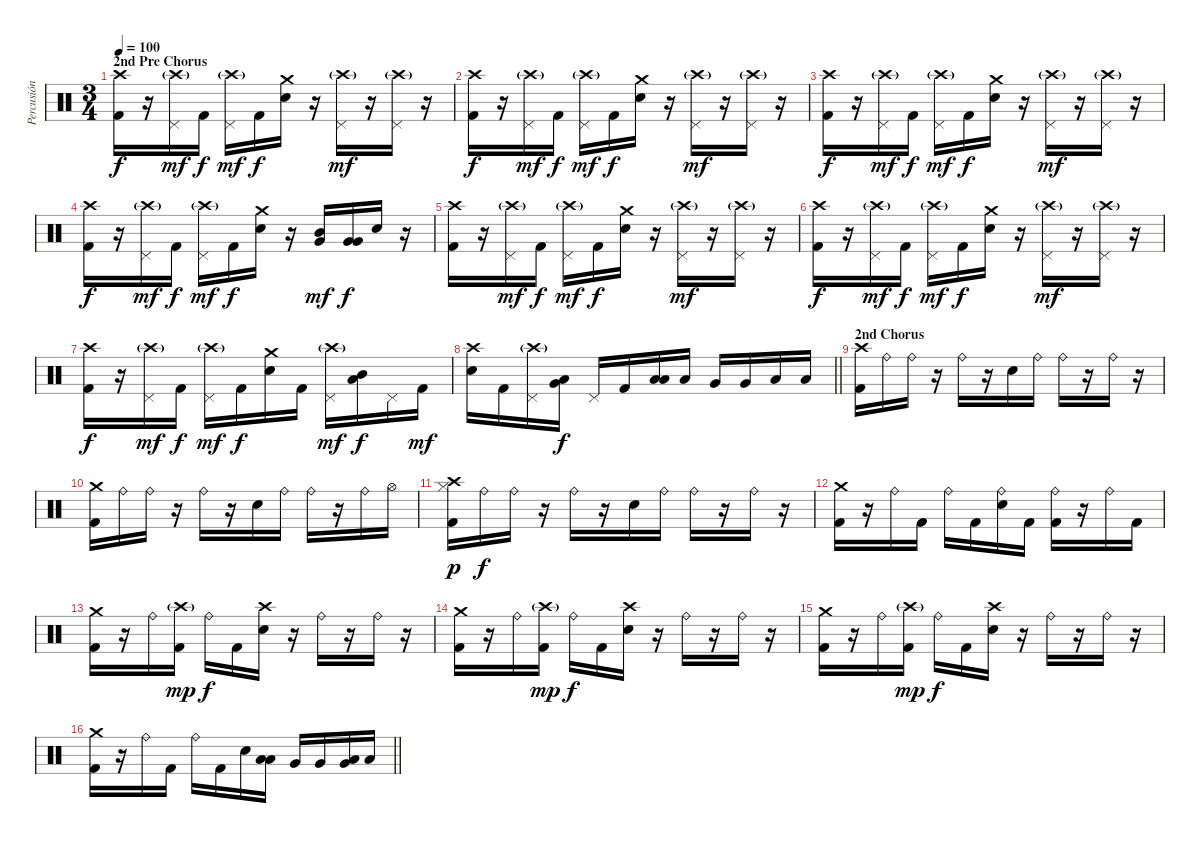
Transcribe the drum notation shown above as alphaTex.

\track ("Percusión" "Percusión") {instrument percussion}
\staff {score}
\articulation defaults
\ts (3 4)
\section ("" "2nd Pre Chorus")
\tempo 100
\clef neutral
\ks c
("Crash high (hit)" "Kick (hit) 2").16{dy f} r.16 ("Crash high (hit)"{g} "Pedal Hi-Hat (hit)").16{dy mf} "Kick (hit) 2".16{dy f} ("Crash high (hit)"{g} "Pedal Hi-Hat (hit)").16{dy mf} "Kick (hit) 2".16{dy f} ("Crash medium (hit)" "Electric Snare (hit)").16 r.16 ("Crash high (hit)"{g} "Pedal Hi-Hat (hit)").16{dy mf} r.16 ("Crash high (hit)"{g} "Pedal Hi-Hat (hit)").16 r.16 |
("Crash high (hit)" "Kick (hit) 2").16{dy f} r.16 ("Crash high (hit)"{g} "Pedal Hi-Hat (hit)").16{dy mf} "Kick (hit) 2".16{dy f} ("Crash high (hit)"{g} "Pedal Hi-Hat (hit)").16{dy mf} "Kick (hit) 2".16{dy f} ("Crash medium (hit)" "Electric Snare (hit)").16 r.16 ("Crash high (hit)"{g} "Pedal Hi-Hat (hit)").16{dy mf} r.16 ("Crash high (hit)"{g} "Pedal Hi-Hat (hit)").16 r.16 |
("Crash high (hit)" "Kick (hit) 2").16{dy f} r.16 ("Crash high (hit)"{g} "Pedal Hi-Hat (hit)").16{dy mf} "Kick (hit) 2".16{dy f} ("Crash high (hit)"{g} "Pedal Hi-Hat (hit)").16{dy mf} "Kick (hit) 2".16{dy f} ("Crash medium (hit)" "Electric Snare (hit)").16 r.16 ("Crash high (hit)"{g} "Pedal Hi-Hat (hit)").16{dy mf} r.16 ("Crash high (hit)"{g} "Pedal Hi-Hat (hit)").16 r.16 |
("Crash high (hit)" "Kick (hit) 2").16{dy f} r.16 ("Crash high (hit)"{g} "Pedal Hi-Hat (hit)").16{dy mf} "Kick (hit) 2".16{dy f} ("Crash high (hit)"{g} "Pedal Hi-Hat (hit)").16{dy mf} "Kick (hit) 2".16{dy f} ("Crash medium (hit)" "Electric Snare (hit)").16 r.16 ("Mid Tom (hit)" "Very Low Tom (hit)").16{dy mf} ("Very Low Tom (hit)" "Very Low Tom (hit)").16{dy f} "Electric Snare (hit)".16 r.16 |
("Crash high (hit)" "Kick (hit) 2").16 r.16 ("Crash high (hit)"{g} "Pedal Hi-Hat (hit)").16{dy mf} "Kick (hit) 2".16{dy f} ("Crash high (hit)"{g} "Pedal Hi-Hat (hit)").16{dy mf} "Kick (hit) 2".16{dy f} ("Crash medium (hit)" "Electric Snare (hit)").16 r.16 ("Crash high (hit)"{g} "Pedal Hi-Hat (hit)").16{dy mf} r.16 ("Crash high (hit)"{g} "Pedal Hi-Hat (hit)").16 r.16 |
("Crash high (hit)" "Kick (hit) 2").16{dy f} r.16 ("Crash high (hit)"{g} "Pedal Hi-Hat (hit)").16{dy mf} "Kick (hit) 2".16{dy f} ("Crash high (hit)"{g} "Pedal Hi-Hat (hit)").16{dy mf} "Kick (hit) 2".16{dy f} ("Crash medium (hit)" "Electric Snare (hit)").16 r.16 ("Crash high (hit)"{g} "Pedal Hi-Hat (hit)").16{dy mf} r.16 ("Crash high (hit)"{g} "Pedal Hi-Hat (hit)").16 r.16 |
("Crash high (hit)" "Kick (hit) 2").16{dy f} r.16 ("Crash high (hit)"{g} "Pedal Hi-Hat (hit)").16{dy mf} "Kick (hit) 2".16{dy f} ("Crash high (hit)"{g} "Pedal Hi-Hat (hit)").16{dy mf} "Kick (hit) 2".16{dy f} ("Crash medium (hit)" "Electric Snare (hit)").16 "Kick (hit) 2".16 ("Crash high (hit)"{g} "Pedal Hi-Hat (hit)").16{dy mf} ("Mid Tom (hit)" "Low Tom (hit)").16{dy f} "Pedal Hi-Hat (hit)".16 "Kick (hit) 2".16{dy mf} |
\barLineRight lightlight
("Crash high (hit)" "Electric Snare (hit)").16 "Kick (hit) 2".16 ("Crash high (hit)"{g} "Pedal Hi-Hat (hit)").16 ("Low Tom (hit)" "Very Low Tom (hit)").16{dy f} "Pedal Hi-Hat (hit)".16 "Kick (hit) 2".16 ("Low Tom (hit)" "Low Floor Tom (hit)").16 "Low Tom (hit)".16 "Very Low Tom (hit)".16 "Very Low Tom (hit)".16 "Low Floor Tom (hit)".16 "Low Floor Tom (hit)".16 |
\section ("" "2nd Chorus")
("Crash high (hit)" "Kick (hit) 2").16 "Ride (bell)".16 "Ride (bell)".16 r.16 "Ride (bell)".16 r.16 "Electric Snare (hit)".16 "Ride (bell)".16 "Ride (bell)".16 r.16 "Ride (bell)".16 r.16 |
("Crash medium (hit)" "Kick (hit) 2").16 "Ride (bell)".16 "Ride (bell)".16 r.16 "Ride (bell)".16 r.16 "Electric Snare (hit)".16 "Ride (bell)".16 "Ride (bell)".16 r.16 "Ride (bell)".16 "Hi-Hat (open)".16 |
("Crash high (hit)" "Hi-Hat (closed)" "Kick (hit) 2").16{dy p} "Ride (bell)".16{dy f} "Ride (bell)".16 r.16 "Ride (bell)".16 r.16 "Electric Snare (hit)".16 "Ride (bell)".16 "Ride (bell)".16 r.16 "Ride (bell)".16 r.16 |
("Crash medium (hit)" "Kick (hit) 2").16 r.16 "Ride (bell)".16 "Kick (hit) 2".16 "Ride (bell)".16 "Kick (hit) 2".16 ("Ride (bell)" "Electric Snare (hit)").16 "Kick (hit) 2".16 ("Ride (bell)" "Kick (hit) 2").16 r.16 "Ride (bell)".16 "Kick (hit) 2".16 |
("Crash medium (hit)" "Kick (hit) 2").16 r.16 "Ride (bell)".16 ("Crash high (hit)"{g} "Kick (hit) 2").16{dy mp} "Ride (bell)".16{dy f} "Kick (hit) 2".16 ("Crash high (hit)" "Electric Snare (hit)").16 r.16 "Ride (bell)".16 r.16 "Ride (bell)".16 r.16 |
("Crash medium (hit)" "Kick (hit) 2").16 r.16 "Ride (bell)".16 ("Crash high (hit)"{g} "Kick (hit) 2").16{dy mp} "Ride (bell)".16{dy f} "Kick (hit) 2".16 ("Crash high (hit)" "Electric Snare (hit)").16 r.16 "Ride (bell)".16 r.16 "Ride (bell)".16 r.16 |
("Crash medium (hit)" "Kick (hit) 2").16 r.16 "Ride (bell)".16 ("Crash high (hit)"{g} "Kick (hit) 2").16{dy mp} "Ride (bell)".16{dy f} "Kick (hit) 2".16 ("Crash high (hit)" "Electric Snare (hit)").16 r.16 "Ride (bell)".16 r.16 "Ride (bell)".16 r.16 |
\barLineRight lightlight
("Crash medium (hit)" "Kick (hit) 2").16 r.16 "Ride (bell)".16 "Kick (hit) 2".16 "Ride (bell)".16 "Kick (hit) 2".16 "Electric Snare (hit)".16 ("Low Tom (hit)" "Low Floor Tom (hit)").16 "Very Low Tom (hit)".16 "Very Low Tom (hit)".16 ("Very Low Tom (hit)" "Low Floor Tom (hit)").16 "Low Floor Tom (hit)".16
